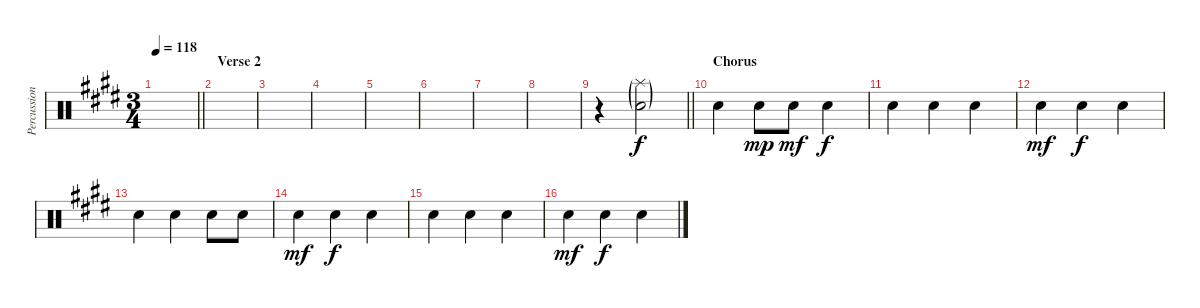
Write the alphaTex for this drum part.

\track ("Percussion" "Percussion") {instrument percussion}
\staff {score}
\articulation defaults
\ts (3 4)
\tempo 118
\clef neutral
\barLineRight lightlight
\ks e
|
\section ("" "Verse 2")
|
|
|
|
|
|
|
\barLineRight lightlight
r.4 ("Splash (hit)"{g} "Electric Snare (hit)"{g}).2 |
\section ("" "Chorus")
"Snare (hit) 2".4{dy f} "Snare (hit) 2".8{dy mp} "Snare (hit) 2".8{dy mf} "Snare (hit) 2".4{dy f} |
"Hand Clap (hit)".4 "Snare (hit) 2".4 "Snare (hit) 2".4 |
"Snare (hit) 2".4{dy mf} "Snare (hit) 2".4{dy f} "Snare (hit) 2".4 |
"Hand Clap (hit)".4 "Snare (hit) 2".4 "Snare (hit) 2".8 "Snare (hit) 2".8 |
"Snare (hit) 2".4{dy mf} "Snare (hit) 2".4{dy f} "Snare (hit) 2".4 |
"Hand Clap (hit)".4 "Snare (hit) 2".4 "Snare (hit) 2".4 |
"Snare (hit) 2".4{dy mf} "Snare (hit) 2".4{dy f} "Snare (hit) 2".4
